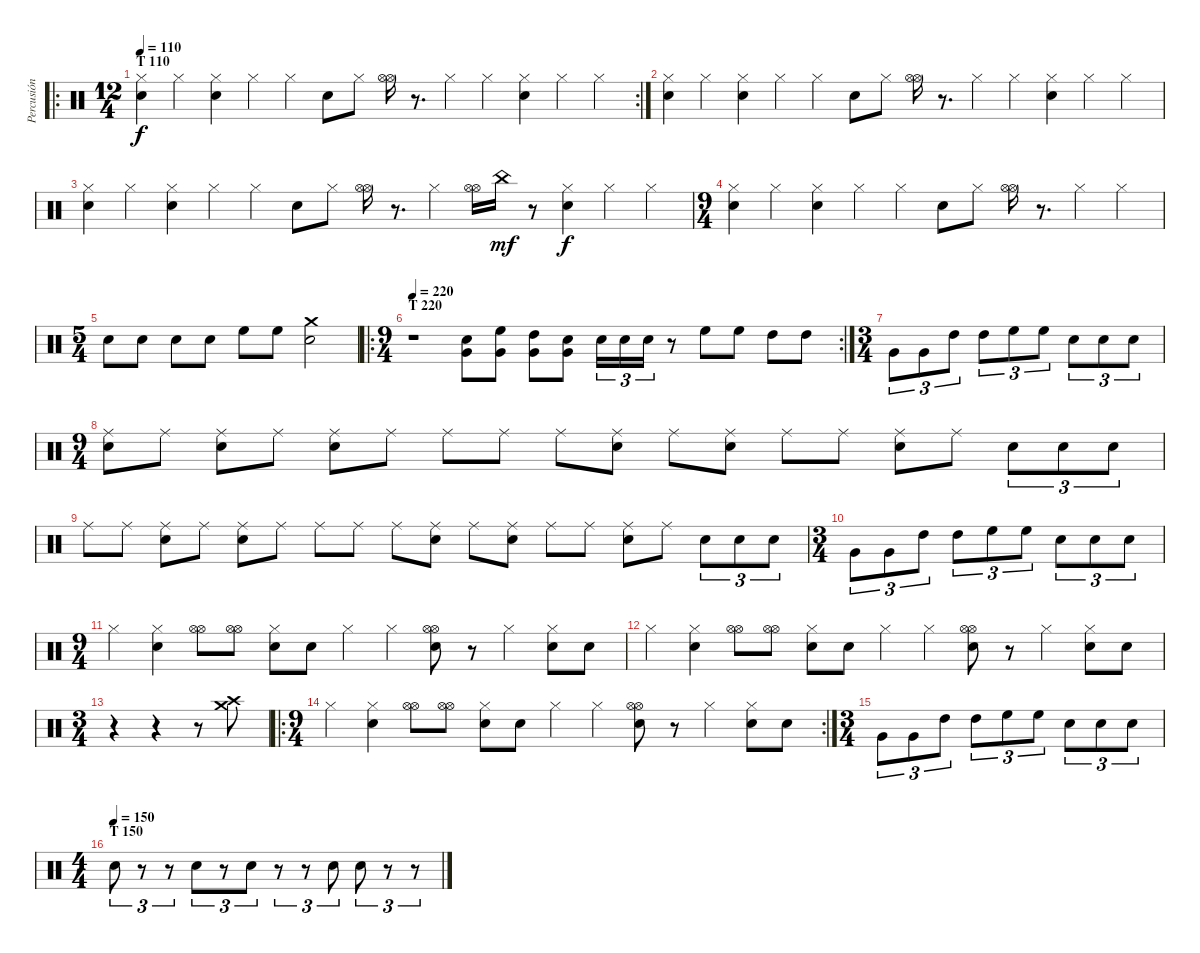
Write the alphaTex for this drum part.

\track ("Percusión - Compa" "Percusión ") {instrument percussion}
\staff {score}
\articulation defaults
\ro
\rc 2
\ts (12 4)
\section ("" "T 110")
\tempo 110
\clef neutral
\ks c
("Hi-Hat (closed)" "Electric Snare (hit)").4{dy f volume 15} "Hi-Hat (closed)".4 ("Hi-Hat (closed)" "Electric Snare (hit)").4 "Hi-Hat (closed)".4 "Hi-Hat (closed)".4 "Electric Snare (hit)".8 "Hi-Hat (closed)".8 ("Hi-Hat (open)" "Hi-Hat (open)").16 r.8{d} "Hi-Hat (closed)".4 "Hi-Hat (closed)".4 ("Hi-Hat (closed)" "Electric Snare (hit)").4 "Hi-Hat (closed)".4 "Hi-Hat (closed)".4 |
("Hi-Hat (closed)" "Electric Snare (hit)").4 "Hi-Hat (closed)".4 ("Hi-Hat (closed)" "Electric Snare (hit)").4 "Hi-Hat (closed)".4 "Hi-Hat (closed)".4 "Electric Snare (hit)".8 "Hi-Hat (closed)".8 ("Hi-Hat (open)" "Hi-Hat (open)").16 r.8{d} "Hi-Hat (closed)".4 "Hi-Hat (closed)".4 ("Hi-Hat (closed)" "Electric Snare (hit)").4 "Hi-Hat (closed)".4 "Hi-Hat (closed)".4 |
("Hi-Hat (closed)" "Electric Snare (hit)").4 "Hi-Hat (closed)".4 ("Hi-Hat (closed)" "Electric Snare (hit)").4 "Hi-Hat (closed)".4 "Hi-Hat (closed)".4 "Electric Snare (hit)".8 "Hi-Hat (closed)".8 ("Hi-Hat (open)" "Hi-Hat (open)").16 r.8{d} "Hi-Hat (closed)".4 ("Hi-Hat (open)" "Hi-Hat (open)").16 "China (hit)".16{dy mf} r.8 ("Hi-Hat (closed)" "Electric Snare (hit)").4{dy f} "Hi-Hat (closed)".4 "Hi-Hat (closed)".4 |
\ts (9 4)
("Hi-Hat (closed)" "Electric Snare (hit)").4 "Hi-Hat (closed)".4 ("Hi-Hat (closed)" "Electric Snare (hit)").4 "Hi-Hat (closed)".4 "Hi-Hat (closed)".4 "Electric Snare (hit)".8 "Hi-Hat (closed)".8 ("Hi-Hat (open)" "Hi-Hat (open)").16 r.8{d} "Hi-Hat (closed)".4 "Hi-Hat (closed)".4 |
\ts (5 4)
"Electric Snare (hit)".8 "Electric Snare (hit)".8 "Electric Snare (hit)".8 "Electric Snare (hit)".8 "High Floor Tom (hit)".8 "High Floor Tom (hit)".8 ("Crash medium (hit)" "Electric Snare (hit)").2 |
\ro
\rc 2
\ts (9 4)
\section ("" "T 220")
\tempo 220
r.1{volume 12} ("Electric Snare (hit)" "Very Low Tom (hit)").8 ("High Floor Tom (hit)" "Very Low Tom (hit)").8 ("High Tom (hit)" "Very Low Tom (hit)").8 ("Electric Snare (hit)" "Very Low Tom (hit)").8 "Electric Snare (hit)".16{tu (3 2)} "Electric Snare (hit)".16{tu (3 2)} "Electric Snare (hit)".16{tu (3 2)} r.8 "High Floor Tom (hit)".8 "High Floor Tom (hit)".8 "High Tom (hit)".8 "High Tom (hit)".8 |
\ts (3 4)
"Very Low Tom (hit)".8{tu (3 2)} "Very Low Tom (hit)".8{tu (3 2)} "High Tom (hit)".8{tu (3 2)} "High Tom (hit)".8{tu (3 2)} "High Floor Tom (hit)".8{tu (3 2)} "High Floor Tom (hit)".8{tu (3 2)} "Electric Snare (hit)".8{tu (3 2)} "Electric Snare (hit)".8{tu (3 2)} "Electric Snare (hit)".8{tu (3 2)} |
\ts (9 4)
("Ride (middle)" "Electric Snare (hit)").8 "Ride (middle)".8 ("Ride (middle)" "Electric Snare (hit)").8 "Ride (middle)".8 ("Ride (middle)" "Electric Snare (hit)").8 "Ride (middle)".8 "Ride (middle)".8 "Ride (middle)".8 "Ride (middle)".8 ("Ride (middle)" "Electric Snare (hit)").8 "Ride (middle)".8 ("Ride (middle)" "Electric Snare (hit)").8 "Ride (middle)".8 "Ride (middle)".8 ("Ride (middle)" "Electric Snare (hit)").8 "Ride (middle)".8 "Electric Snare (hit)".8{tu (3 2)} "Electric Snare (hit)".8{tu (3 2)} "Electric Snare (hit)".8{tu (3 2)} |
"Ride (middle)".8 "Ride (middle)".8 ("Ride (middle)" "Electric Snare (hit)").8 "Ride (middle)".8 ("Ride (middle)" "Electric Snare (hit)").8 "Ride (middle)".8 "Ride (middle)".8 "Ride (middle)".8 "Ride (middle)".8 ("Ride (middle)" "Electric Snare (hit)").8 "Ride (middle)".8 ("Ride (middle)" "Electric Snare (hit)").8 "Ride (middle)".8 "Ride (middle)".8 ("Ride (middle)" "Electric Snare (hit)").8 "Ride (middle)".8 "Electric Snare (hit)".8{tu (3 2)} "Electric Snare (hit)".8{tu (3 2)} "Electric Snare (hit)".8{tu (3 2)} |
\ts (3 4)
"Very Low Tom (hit)".8{tu (3 2)} "Very Low Tom (hit)".8{tu (3 2)} "High Tom (hit)".8{tu (3 2)} "High Tom (hit)".8{tu (3 2)} "High Floor Tom (hit)".8{tu (3 2)} "High Floor Tom (hit)".8{tu (3 2)} "Electric Snare (hit)".8{tu (3 2)} "Electric Snare (hit)".8{tu (3 2)} "Electric Snare (hit)".8{tu (3 2)} |
\ts (9 4)
"Hi-Hat (closed)".4 ("Hi-Hat (closed)" "Electric Snare (hit)").4 ("Hi-Hat (open)" "Hi-Hat (open)").8 ("Hi-Hat (open)" "Hi-Hat (open)").8 ("Hi-Hat (closed)" "Electric Snare (hit)").8 "Electric Snare (hit)".8 "Hi-Hat (closed)".4 "Hi-Hat (closed)".4 ("Hi-Hat (open)" "Hi-Hat (open)" "Electric Snare (hit)").8 r.8 "Hi-Hat (closed)".4 ("Hi-Hat (closed)" "Electric Snare (hit)").8 "Electric Snare (hit)".8 |
"Hi-Hat (closed)".4 ("Hi-Hat (closed)" "Electric Snare (hit)").4 ("Hi-Hat (open)" "Hi-Hat (open)").8 ("Hi-Hat (open)" "Hi-Hat (open)").8 ("Hi-Hat (closed)" "Electric Snare (hit)").8 "Electric Snare (hit)".8 "Hi-Hat (closed)".4 "Hi-Hat (closed)".4 ("Hi-Hat (open)" "Hi-Hat (open)" "Electric Snare (hit)").8 r.8 "Hi-Hat (closed)".4 ("Hi-Hat (closed)" "Electric Snare (hit)").8 "Electric Snare (hit)".8 |
\ts (3 4)
r.4 r.4 r.8 ("Crash high (hit)" "Crash medium (hit)").8 |
\ro
\rc 2
\ts (9 4)
"Hi-Hat (closed)".4 ("Hi-Hat (closed)" "Electric Snare (hit)").4 ("Hi-Hat (open)" "Hi-Hat (open)").8 ("Hi-Hat (open)" "Hi-Hat (open)").8 ("Hi-Hat (closed)" "Electric Snare (hit)").8 "Electric Snare (hit)".8 "Hi-Hat (closed)".4 "Hi-Hat (closed)".4 ("Hi-Hat (open)" "Hi-Hat (open)" "Electric Snare (hit)").8 r.8 "Hi-Hat (closed)".4 ("Hi-Hat (closed)" "Electric Snare (hit)").8 "Electric Snare (hit)".8 |
\ts (3 4)
"Very Low Tom (hit)".8{tu (3 2)} "Very Low Tom (hit)".8{tu (3 2)} "High Tom (hit)".8{tu (3 2)} "High Tom (hit)".8{tu (3 2)} "High Floor Tom (hit)".8{tu (3 2)} "High Floor Tom (hit)".8{tu (3 2)} "Electric Snare (hit)".8{tu (3 2)} "Electric Snare (hit)".8{tu (3 2)} "Electric Snare (hit)".8{tu (3 2)} |
\ts (4 4)
\section ("" "T 150")
\tempo (150)
"Electric Snare (hit)".8{tu (3 2)} r.8{tu (3 2)} r.8{tu (3 2)} "Electric Snare (hit)".8{tu (3 2)} r.8{tu (3 2)} "Electric Snare (hit)".8{tu (3 2)} r.8{tu (3 2)} r.8{tu (3 2)} "Electric Snare (hit)".8{tu (3 2)} "Electric Snare (hit)".8{tu (3 2)} r.8{tu (3 2)} r.8{tu (3 2)}
